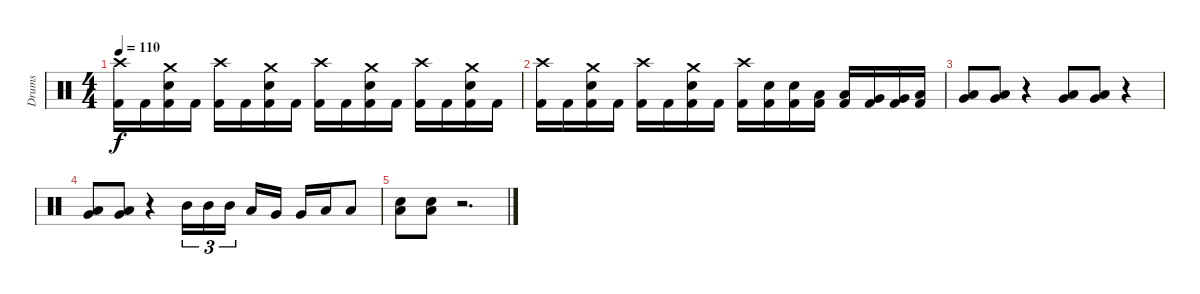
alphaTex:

\track ("Drums" "Drums") {instrument percussion}
\staff {score}
\articulation defaults
\ts (4 4)
\tempo 110
\clef neutral
\ks c
("Crash high (hit)" "Kick (hit) 2").16{dy f} "Kick (hit) 2".16 ("Crash medium (hit)" "Electric Snare (hit)" "Kick (hit) 2").16 "Kick (hit) 2".16 ("Crash high (hit)" "Kick (hit) 2").16 "Kick (hit) 2".16 ("Crash medium (hit)" "Electric Snare (hit)" "Kick (hit) 2").16 "Kick (hit) 2".16 ("Crash high (hit)" "Kick (hit) 2").16 "Kick (hit) 2".16 ("Crash medium (hit)" "Electric Snare (hit)" "Kick (hit) 2").16 "Kick (hit) 2".16 ("Crash high (hit)" "Kick (hit) 2").16 "Kick (hit) 2".16 ("Crash medium (hit)" "Electric Snare (hit)" "Kick (hit) 2").16 "Kick (hit) 2".16 |
("Crash high (hit)" "Kick (hit) 2").16 "Kick (hit) 2".16 ("Crash medium (hit)" "Electric Snare (hit)" "Kick (hit) 2").16 "Kick (hit) 2".16 ("Crash high (hit)" "Kick (hit) 2").16 "Kick (hit) 2".16 ("Crash medium (hit)" "Electric Snare (hit)" "Kick (hit) 2").16 "Kick (hit) 2".16 ("Crash high (hit)" "Kick (hit) 2").16 ("Electric Snare (hit)" "Kick (hit) 2").16 ("Electric Snare (hit)" "Kick (hit) 2").16 ("Low Tom (hit)" "Kick (hit) 2").16 ("Low Tom (hit)" "Kick (hit) 2").16 ("Very Low Tom (hit)" "Kick (hit) 2").16 ("Very Low Tom (hit)" "Kick (hit) 2").16 ("Low Floor Tom (hit)" "Kick (hit) 2").16 |
("Very Low Tom (hit)" "Low Floor Tom (hit)").8 ("Very Low Tom (hit)" "Low Floor Tom (hit)").8 r.4 ("Very Low Tom (hit)" "Low Floor Tom (hit)").8 ("Very Low Tom (hit)" "Low Floor Tom (hit)").8 r.4 |
("Very Low Tom (hit)" "Low Floor Tom (hit)").8 ("Very Low Tom (hit)" "Low Floor Tom (hit)").8 r.4 "Mid Tom (hit)".16{tu (3 2)} "Mid Tom (hit)".16{tu (3 2)} "Mid Tom (hit)".16{tu (3 2)} "Low Tom (hit)".16 "Very Low Tom (hit)".16 "Very Low Tom (hit)".16 "Low Floor Tom (hit)".16 "Low Floor Tom (hit)".8 |
("Low Floor Tom (hit)" "Electric Snare (hit)").8 ("Low Floor Tom (hit)" "Electric Snare (hit)").8 r.2{d}
